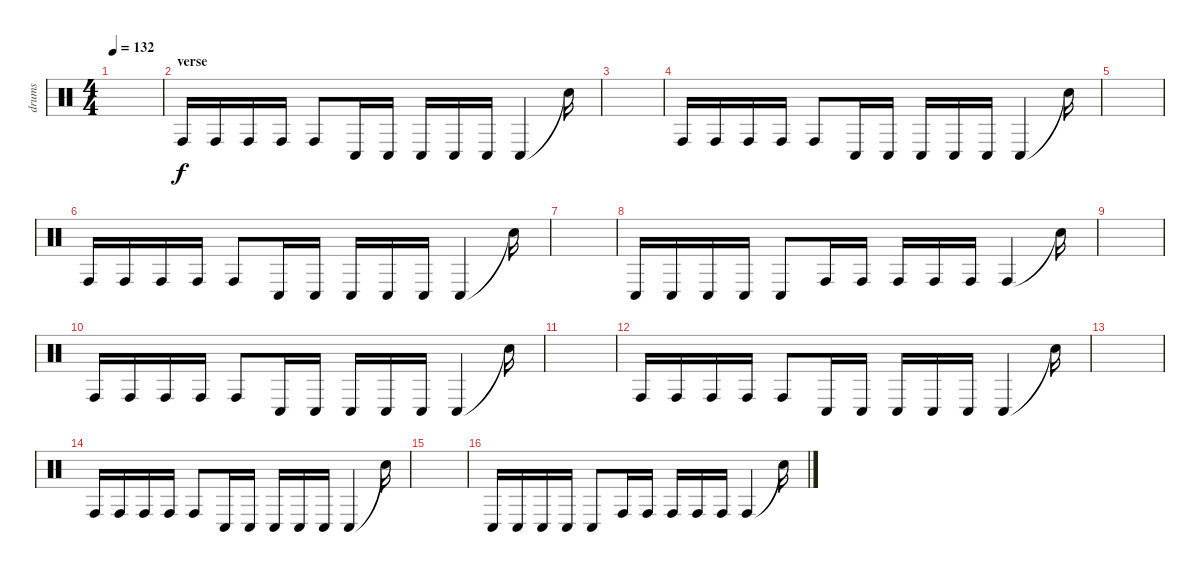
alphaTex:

\track ("drums" "drums") {instrument percussion}
\staff {score}
\articulation defaults
\ts (4 4)
\tempo 132
\clef neutral
\ks c
|
\section ("" "verse")
"Conga high (hit)".16 "Conga high (hit)".16 "Conga high (hit)".16 "Conga high (hit)".16 "Conga high (hit)".8 "Conga low (hit)".16 "Conga low (hit)".16 "Conga low (hit)".16 "Conga low (hit)".16 "Conga low (hit)".16 "Conga low (hit)".4 "Snare (hit)"{t}.16 |
|
"Conga high (hit)".16 "Conga high (hit)".16 "Conga high (hit)".16 "Conga high (hit)".16 "Conga high (hit)".8 "Conga low (hit)".16 "Conga low (hit)".16 "Conga low (hit)".16 "Conga low (hit)".16 "Conga low (hit)".16 "Conga low (hit)".4 "Snare (hit)"{t}.16 |
|
"Conga high (hit)".16 "Conga high (hit)".16 "Conga high (hit)".16 "Conga high (hit)".16 "Conga high (hit)".8 "Conga low (hit)".16 "Conga low (hit)".16 "Conga low (hit)".16 "Conga low (hit)".16 "Conga low (hit)".16 "Conga low (hit)".4 "Snare (hit)"{t}.16 |
|
"Conga low (hit)".16 "Conga low (hit)".16 "Conga low (hit)".16 "Conga low (hit)".16 "Conga low (hit)".8 "Conga high (hit)".16 "Conga high (hit)".16 "Conga high (hit)".16 "Conga high (hit)".16 "Conga high (hit)".16 "Conga high (hit)".4 "Snare (hit)"{t}.16 |
|
"Conga high (hit)".16 "Conga high (hit)".16 "Conga high (hit)".16 "Conga high (hit)".16 "Conga high (hit)".8 "Conga low (hit)".16 "Conga low (hit)".16 "Conga low (hit)".16 "Conga low (hit)".16 "Conga low (hit)".16 "Conga low (hit)".4 "Snare (hit)"{t}.16 |
|
"Conga high (hit)".16 "Conga high (hit)".16 "Conga high (hit)".16 "Conga high (hit)".16 "Conga high (hit)".8 "Conga low (hit)".16 "Conga low (hit)".16 "Conga low (hit)".16 "Conga low (hit)".16 "Conga low (hit)".16 "Conga low (hit)".4 "Snare (hit)"{t}.16 |
|
"Conga high (hit)".16 "Conga high (hit)".16 "Conga high (hit)".16 "Conga high (hit)".16 "Conga high (hit)".8 "Conga low (hit)".16 "Conga low (hit)".16 "Conga low (hit)".16 "Conga low (hit)".16 "Conga low (hit)".16 "Conga low (hit)".4 "Snare (hit)"{t}.16 |
|
"Conga low (hit)".16 "Conga low (hit)".16 "Conga low (hit)".16 "Conga low (hit)".16 "Conga low (hit)".8 "Conga high (hit)".16 "Conga high (hit)".16 "Conga high (hit)".16 "Conga high (hit)".16 "Conga high (hit)".16 "Conga high (hit)".4 "Snare (hit)"{t}.16
